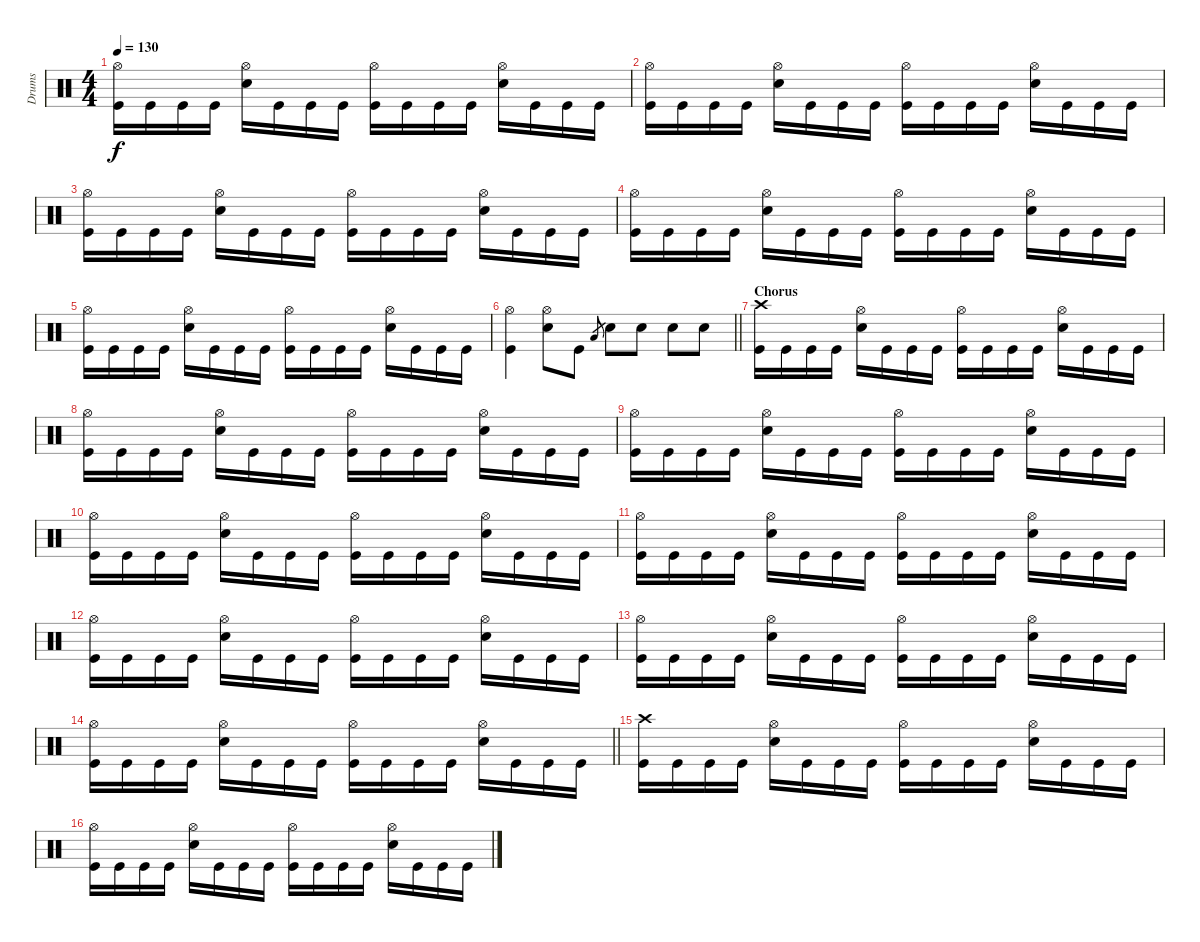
\track ("Drums" "Drums") {instrument percussion}
\staff {score}
\articulation defaults
\ts (4 4)
\tempo 130
\clef neutral
\ks c
("Hi-Hat (open)" "Kick (hit)").16{dy f} "Kick (hit)".16 "Kick (hit)".16 "Kick (hit)".16 ("Hi-Hat (open)" "Electric Snare (hit)").16 "Kick (hit)".16 "Kick (hit)".16 "Kick (hit)".16 ("Hi-Hat (open)" "Kick (hit)").16 "Kick (hit)".16 "Kick (hit)".16 "Kick (hit)".16 ("Hi-Hat (open)" "Electric Snare (hit)").16 "Kick (hit)".16 "Kick (hit)".16 "Kick (hit)".16 |
("Hi-Hat (open)" "Kick (hit)").16 "Kick (hit)".16 "Kick (hit)".16 "Kick (hit)".16 ("Hi-Hat (open)" "Electric Snare (hit)").16 "Kick (hit)".16 "Kick (hit)".16 "Kick (hit)".16 ("Hi-Hat (open)" "Kick (hit)").16 "Kick (hit)".16 "Kick (hit)".16 "Kick (hit)".16 ("Hi-Hat (open)" "Electric Snare (hit)").16 "Kick (hit)".16 "Kick (hit)".16 "Kick (hit)".16 |
("Hi-Hat (open)" "Kick (hit)").16 "Kick (hit)".16 "Kick (hit)".16 "Kick (hit)".16 ("Hi-Hat (open)" "Electric Snare (hit)").16 "Kick (hit)".16 "Kick (hit)".16 "Kick (hit)".16 ("Hi-Hat (open)" "Kick (hit)").16 "Kick (hit)".16 "Kick (hit)".16 "Kick (hit)".16 ("Hi-Hat (open)" "Electric Snare (hit)").16 "Kick (hit)".16 "Kick (hit)".16 "Kick (hit)".16 |
("Hi-Hat (open)" "Kick (hit)").16 "Kick (hit)".16 "Kick (hit)".16 "Kick (hit)".16 ("Hi-Hat (open)" "Electric Snare (hit)").16 "Kick (hit)".16 "Kick (hit)".16 "Kick (hit)".16 ("Hi-Hat (open)" "Kick (hit)").16 "Kick (hit)".16 "Kick (hit)".16 "Kick (hit)".16 ("Hi-Hat (open)" "Electric Snare (hit)").16 "Kick (hit)".16 "Kick (hit)".16 "Kick (hit)".16 |
("Hi-Hat (open)" "Kick (hit)").16 "Kick (hit)".16 "Kick (hit)".16 "Kick (hit)".16 ("Hi-Hat (open)" "Electric Snare (hit)").16 "Kick (hit)".16 "Kick (hit)".16 "Kick (hit)".16 ("Hi-Hat (open)" "Kick (hit)").16 "Kick (hit)".16 "Kick (hit)".16 "Kick (hit)".16 ("Hi-Hat (open)" "Electric Snare (hit)").16 "Kick (hit)".16 "Kick (hit)".16 "Kick (hit)".16 |
\barLineRight lightlight
("Hi-Hat (open)" "Kick (hit)").4 ("Hi-Hat (open)" "Electric Snare (hit)").8 "Kick (hit)".8 "Low Floor Tom (hit)".8{gr} "Electric Snare (hit)".8 "Electric Snare (hit)".8 "Electric Snare (hit)".8 "Electric Snare (hit)".8 |
\section ("" "Chorus ")
("Crash high (hit)" "Kick (hit)").16 "Kick (hit)".16 "Kick (hit)".16 "Kick (hit)".16 ("Hi-Hat (open)" "Electric Snare (hit)").16 "Kick (hit)".16 "Kick (hit)".16 "Kick (hit)".16 ("Hi-Hat (open)" "Kick (hit)").16 "Kick (hit)".16 "Kick (hit)".16 "Kick (hit)".16 ("Hi-Hat (open)" "Electric Snare (hit)").16 "Kick (hit)".16 "Kick (hit)".16 "Kick (hit)".16 |
("Hi-Hat (open)" "Kick (hit)").16 "Kick (hit)".16 "Kick (hit)".16 "Kick (hit)".16 ("Hi-Hat (open)" "Electric Snare (hit)").16 "Kick (hit)".16 "Kick (hit)".16 "Kick (hit)".16 ("Hi-Hat (open)" "Kick (hit)").16 "Kick (hit)".16 "Kick (hit)".16 "Kick (hit)".16 ("Hi-Hat (open)" "Electric Snare (hit)").16 "Kick (hit)".16 "Kick (hit)".16 "Kick (hit)".16 |
("Hi-Hat (open)" "Kick (hit)").16 "Kick (hit)".16 "Kick (hit)".16 "Kick (hit)".16 ("Hi-Hat (open)" "Electric Snare (hit)").16 "Kick (hit)".16 "Kick (hit)".16 "Kick (hit)".16 ("Hi-Hat (open)" "Kick (hit)").16 "Kick (hit)".16 "Kick (hit)".16 "Kick (hit)".16 ("Hi-Hat (open)" "Electric Snare (hit)").16 "Kick (hit)".16 "Kick (hit)".16 "Kick (hit)".16 |
("Hi-Hat (open)" "Kick (hit)").16 "Kick (hit)".16 "Kick (hit)".16 "Kick (hit)".16 ("Hi-Hat (open)" "Electric Snare (hit)").16 "Kick (hit)".16 "Kick (hit)".16 "Kick (hit)".16 ("Hi-Hat (open)" "Kick (hit)").16 "Kick (hit)".16 "Kick (hit)".16 "Kick (hit)".16 ("Hi-Hat (open)" "Electric Snare (hit)").16 "Kick (hit)".16 "Kick (hit)".16 "Kick (hit)".16 |
("Hi-Hat (open)" "Kick (hit)").16 "Kick (hit)".16 "Kick (hit)".16 "Kick (hit)".16 ("Hi-Hat (open)" "Electric Snare (hit)").16 "Kick (hit)".16 "Kick (hit)".16 "Kick (hit)".16 ("Hi-Hat (open)" "Kick (hit)").16 "Kick (hit)".16 "Kick (hit)".16 "Kick (hit)".16 ("Hi-Hat (open)" "Electric Snare (hit)").16 "Kick (hit)".16 "Kick (hit)".16 "Kick (hit)".16 |
("Hi-Hat (open)" "Kick (hit)").16 "Kick (hit)".16 "Kick (hit)".16 "Kick (hit)".16 ("Hi-Hat (open)" "Electric Snare (hit)").16 "Kick (hit)".16 "Kick (hit)".16 "Kick (hit)".16 ("Hi-Hat (open)" "Kick (hit)").16 "Kick (hit)".16 "Kick (hit)".16 "Kick (hit)".16 ("Hi-Hat (open)" "Electric Snare (hit)").16 "Kick (hit)".16 "Kick (hit)".16 "Kick (hit)".16 |
("Hi-Hat (open)" "Kick (hit)").16 "Kick (hit)".16 "Kick (hit)".16 "Kick (hit)".16 ("Hi-Hat (open)" "Electric Snare (hit)").16 "Kick (hit)".16 "Kick (hit)".16 "Kick (hit)".16 ("Hi-Hat (open)" "Kick (hit)").16 "Kick (hit)".16 "Kick (hit)".16 "Kick (hit)".16 ("Hi-Hat (open)" "Electric Snare (hit)").16 "Kick (hit)".16 "Kick (hit)".16 "Kick (hit)".16 |
\barLineRight lightlight
("Hi-Hat (open)" "Kick (hit)").16 "Kick (hit)".16 "Kick (hit)".16 "Kick (hit)".16 ("Hi-Hat (open)" "Electric Snare (hit)").16 "Kick (hit)".16 "Kick (hit)".16 "Kick (hit)".16 ("Hi-Hat (open)" "Kick (hit)").16 "Kick (hit)".16 "Kick (hit)".16 "Kick (hit)".16 ("Hi-Hat (open)" "Electric Snare (hit)").16 "Kick (hit)".16 "Kick (hit)".16 "Kick (hit)".16 |
("Crash high (hit)" "Kick (hit)").16 "Kick (hit)".16 "Kick (hit)".16 "Kick (hit)".16 ("Hi-Hat (open)" "Electric Snare (hit)").16 "Kick (hit)".16 "Kick (hit)".16 "Kick (hit)".16 ("Hi-Hat (open)" "Kick (hit)").16 "Kick (hit)".16 "Kick (hit)".16 "Kick (hit)".16 ("Hi-Hat (open)" "Electric Snare (hit)").16 "Kick (hit)".16 "Kick (hit)".16 "Kick (hit)".16 |
("Hi-Hat (open)" "Kick (hit)").16 "Kick (hit)".16 "Kick (hit)".16 "Kick (hit)".16 ("Hi-Hat (open)" "Electric Snare (hit)").16 "Kick (hit)".16 "Kick (hit)".16 "Kick (hit)".16 ("Hi-Hat (open)" "Kick (hit)").16 "Kick (hit)".16 "Kick (hit)".16 "Kick (hit)".16 ("Hi-Hat (open)" "Electric Snare (hit)").16 "Kick (hit)".16 "Kick (hit)".16 "Kick (hit)".16
